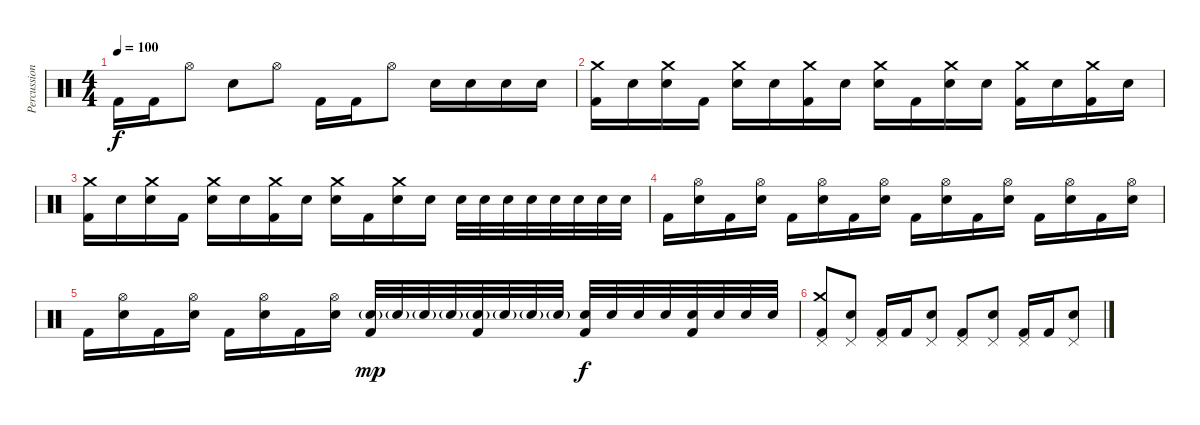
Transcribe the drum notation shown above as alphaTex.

\track ("Percussion" "Percussion") {instrument percussion}
\staff {score}
\articulation defaults
\ts (4 4)
\tempo 100
\clef neutral
\ks c "Kick (hit) 2".16{dy f} "Kick (hit) 2".16 "Hi-Hat (open)".8 "Electric Snare (hit)".8 "Hi-Hat (open)".8 "Kick (hit) 2".16 "Kick (hit) 2".16 "Hi-Hat (open)".8 "Electric Snare (hit)".16 "Electric Snare (hit)".16 "Electric Snare (hit)".16 "Electric Snare (hit)".16
|
("Crash medium (hit)" "Kick (hit) 2").16 "Electric Snare (hit)".16 ("Crash medium (hit)" "Electric Snare (hit)").16 "Kick (hit) 2".16 ("Crash medium (hit)" "Electric Snare (hit)").16 "Electric Snare (hit)".16 ("Crash medium (hit)" "Kick (hit) 2").16 "Electric Snare (hit)".16 ("Crash medium (hit)" "Electric Snare (hit)").16 "Kick (hit) 2".16 ("Crash medium (hit)" "Electric Snare (hit)").16 "Electric Snare (hit)".16 ("Crash medium (hit)" "Kick (hit) 2").16 "Electric Snare (hit)".16 ("Crash medium (hit)" "Kick (hit) 2").16 "Electric Snare (hit)".16 |
("Crash medium (hit)" "Kick (hit) 2").16 "Electric Snare (hit)".16 ("Crash medium (hit)" "Electric Snare (hit)").16 "Kick (hit) 2".16 ("Crash medium (hit)" "Electric Snare (hit)").16 "Electric Snare (hit)".16 ("Crash medium (hit)" "Kick (hit) 2").16 "Electric Snare (hit)".16 ("Crash medium (hit)" "Electric Snare (hit)").16 "Kick (hit) 2".16 ("Crash medium (hit)" "Electric Snare (hit)").16 "Electric Snare (hit)".16 "Electric Snare (hit)".32 "Electric Snare (hit)".32 "Electric Snare (hit)".32 "Electric Snare (hit)".32 "Electric Snare (hit)".32 "Electric Snare (hit)".32 "Electric Snare (hit)".32 "Electric Snare (hit)".32 |
"Kick (hit) 2".16 ("Hi-Hat (open)" "Electric Snare (hit)").16 "Kick (hit) 2".16 ("Hi-Hat (open)" "Electric Snare (hit)").16 "Kick (hit) 2".16 ("Hi-Hat (open)" "Electric Snare (hit)").16 "Kick (hit) 2".16 ("Hi-Hat (open)" "Electric Snare (hit)").16 "Kick (hit) 2".16 ("Hi-Hat (open)" "Electric Snare (hit)").16 "Kick (hit) 2".16 ("Hi-Hat (open)" "Electric Snare (hit)").16 "Kick (hit) 2".16 ("Hi-Hat (open)" "Electric Snare (hit)").16 "Kick (hit) 2".16 ("Hi-Hat (open)" "Electric Snare (hit)").16 |
"Kick (hit) 2".16 ("Hi-Hat (open)" "Electric Snare (hit)").16 "Kick (hit) 2".16 ("Hi-Hat (open)" "Electric Snare (hit)").16 "Kick (hit) 2".16 ("Hi-Hat (open)" "Electric Snare (hit)").16 "Kick (hit) 2".16 ("Hi-Hat (open)" "Electric Snare (hit)").16 ("Kick (hit) 2" "Electric Snare (hit)"{g}).32{dy mp} "Electric Snare (hit)"{g}.32 "Electric Snare (hit)"{g}.32 "Electric Snare (hit)"{g}.32 ("Kick (hit) 2" "Electric Snare (hit)"{g}).32 "Electric Snare (hit)"{g}.32 "Electric Snare (hit)"{g}.32 "Electric Snare (hit)"{g}.32 ("Kick (hit) 2" "Electric Snare (hit)").32{dy f} "Electric Snare (hit)".32 "Electric Snare (hit)".32 "Electric Snare (hit)".32 ("Kick (hit) 2" "Electric Snare (hit)").32 "Electric Snare (hit)".32 "Electric Snare (hit)".32 "Electric Snare (hit)".32 |
("Crash medium (hit)" "Pedal Hi-Hat (hit)" "Kick (hit) 2").8 ("Pedal Hi-Hat (hit)" "Electric Snare (hit)").8 ("Pedal Hi-Hat (hit)" "Kick (hit) 2").16 "Kick (hit) 2".16 ("Pedal Hi-Hat (hit)" "Electric Snare (hit)").8 ("Pedal Hi-Hat (hit)" "Kick (hit) 2").8 ("Pedal Hi-Hat (hit)" "Electric Snare (hit)").8 ("Pedal Hi-Hat (hit)" "Kick (hit) 2").16 "Kick (hit) 2".16 ("Pedal Hi-Hat (hit)" "Electric Snare (hit)").8
